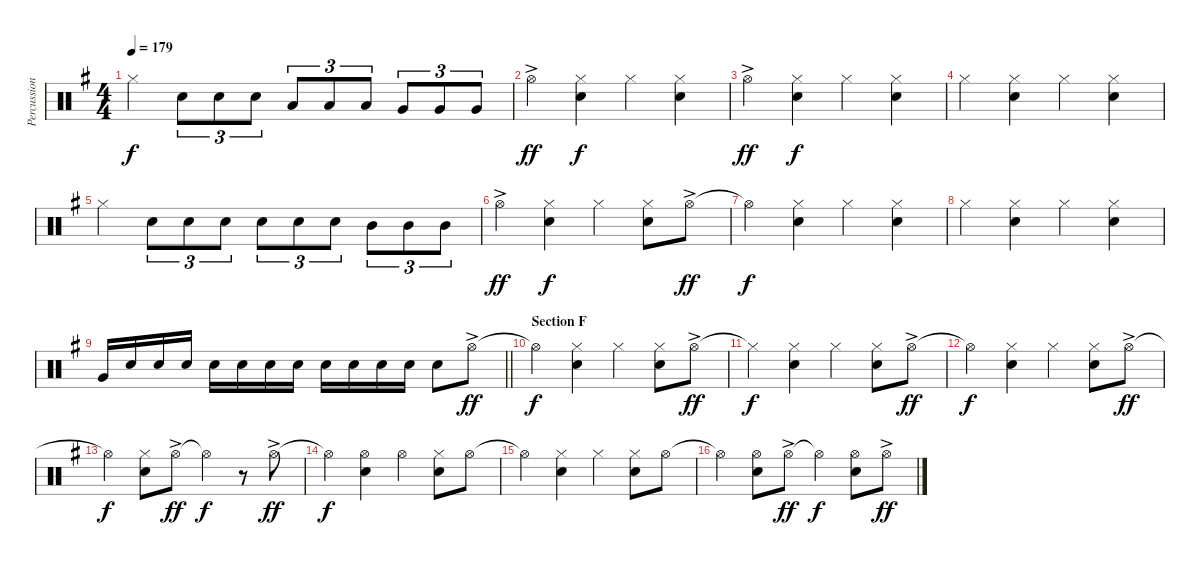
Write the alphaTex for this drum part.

\track ("Percussion 01" "Percussion") {instrument percussion}
\staff {score}
\articulation defaults
\ts (4 4)
\tempo 179
\clef neutral
\ks g "Hi-Hat (closed)".4{dy f} "Snare (hit) 2".8{tu (3 2)} "Snare (hit) 2".8{tu (3 2)} "Snare (hit) 2".8{tu (3 2)} "Low Tom (hit)".8{tu (3 2)} "Low Tom (hit)".8{tu (3 2)} "Low Tom (hit)".8{tu (3 2)} "Very Low Tom (hit)".8{tu (3 2)} "Very Low Tom (hit)".8{tu (3 2)} "Very Low Tom (hit)".8{tu (3 2)}
|
"Hi-Hat (open)"{ac}.4{dy ff} ("Hi-Hat (closed)" "Snare (hit) 2").4{dy f} "Hi-Hat (closed)".4 ("Hi-Hat (closed)" "Snare (hit) 2").4 |
"Hi-Hat (open)"{ac}.4{dy ff} ("Hi-Hat (closed)" "Snare (hit) 2").4{dy f} "Hi-Hat (closed)".4 ("Hi-Hat (closed)" "Snare (hit) 2").4 |
"Hi-Hat (closed)".4 ("Hi-Hat (closed)" "Snare (hit) 2").4 "Hi-Hat (closed)".4 ("Hi-Hat (closed)" "Snare (hit) 2").4 |
"Hi-Hat (closed)".4 "Snare (hit) 2".8{tu (3 2)} "Snare (hit) 2".8{tu (3 2)} "Snare (hit) 2".8{tu (3 2)} "Snare (hit) 2".8{tu (3 2)} "Snare (hit) 2".8{tu (3 2)} "Snare (hit) 2".8{tu (3 2)} "Mid Tom (hit)".8{tu (3 2)} "Mid Tom (hit)".8{tu (3 2)} "Mid Tom (hit)".8{tu (3 2)} |
"Hi-Hat (open)"{ac}.4{dy ff} ("Hi-Hat (closed)" "Snare (hit) 2").4{dy f} "Hi-Hat (closed)".4 ("Hi-Hat (closed)" "Snare (hit) 2").8 "Hi-Hat (open)"{ac}.8{dy ff} |
"Hi-Hat (open)"{t}.4{dy f} ("Hi-Hat (closed)" "Snare (hit) 2").4 "Hi-Hat (closed)".4 ("Hi-Hat (closed)" "Snare (hit) 2").4 |
"Hi-Hat (closed)".4 ("Hi-Hat (closed)" "Snare (hit) 2").4 "Hi-Hat (closed)".4 ("Hi-Hat (closed)" "Snare (hit) 2").4 |
\barLineRight lightlight "Very Low Tom (hit)".16 "Snare (hit) 2".16 "Snare (hit) 2".16 "Snare (hit) 2".16 "Snare (hit) 2".16 "Snare (hit) 2".16 "Snare (hit) 2".16 "Snare (hit) 2".16 "Snare (hit) 2".16 "Snare (hit) 2".16 "Snare (hit) 2".16 "Snare (hit) 2".16 "Snare (hit) 2".8 "Hi-Hat (open)"{ac}.8{dy ff}
|
\section ("" "Section F")
"Hi-Hat (open)"{t}.4{dy f} ("Hi-Hat (closed)" "Snare (hit) 2").4 "Hi-Hat (closed)".4 ("Hi-Hat (closed)" "Snare (hit) 2").8 "Hi-Hat (open)"{ac}.8{dy ff} |
"Hi-Hat (closed)"{t}.4{dy f} ("Hi-Hat (closed)" "Snare (hit) 2").4 "Hi-Hat (closed)".4 ("Hi-Hat (closed)" "Snare (hit) 2").8 "Hi-Hat (open)"{ac}.8{dy ff} |
"Hi-Hat (open)"{t}.4{dy f} ("Hi-Hat (closed)" "Snare (hit) 2").4 "Hi-Hat (closed)".4 ("Hi-Hat (closed)" "Snare (hit) 2").8 "Hi-Hat (open)"{ac}.8{dy ff} |
"Hi-Hat (open)"{t}.4{dy f} ("Hi-Hat (closed)" "Snare (hit) 2").8 "Hi-Hat (open)"{ac}.8{dy ff} "Hi-Hat (open)"{t}.4{dy f} r.8 "Hi-Hat (open)"{ac}.8{dy ff} |
"Hi-Hat (open)"{t}.4{dy f} ("Hi-Hat (open)" "Snare (hit) 2").4 "Hi-Hat (open)".4 ("Hi-Hat (closed)" "Snare (hit) 2").8 "Hi-Hat (open)".8 |
"Hi-Hat (open)"{t}.4 ("Hi-Hat (closed)" "Snare (hit) 2").4 "Hi-Hat (closed)".4 ("Hi-Hat (closed)" "Snare (hit) 2").8 "Hi-Hat (open)".8 |
"Hi-Hat (open)"{t}.4 ("Hi-Hat (open)" "Snare (hit) 2").8 "Hi-Hat (open)"{ac}.8{dy ff} "Hi-Hat (open)"{t}.4{dy f} ("Hi-Hat (open)" "Snare (hit) 2").8 "Hi-Hat (open)"{ac}.8{dy ff}
